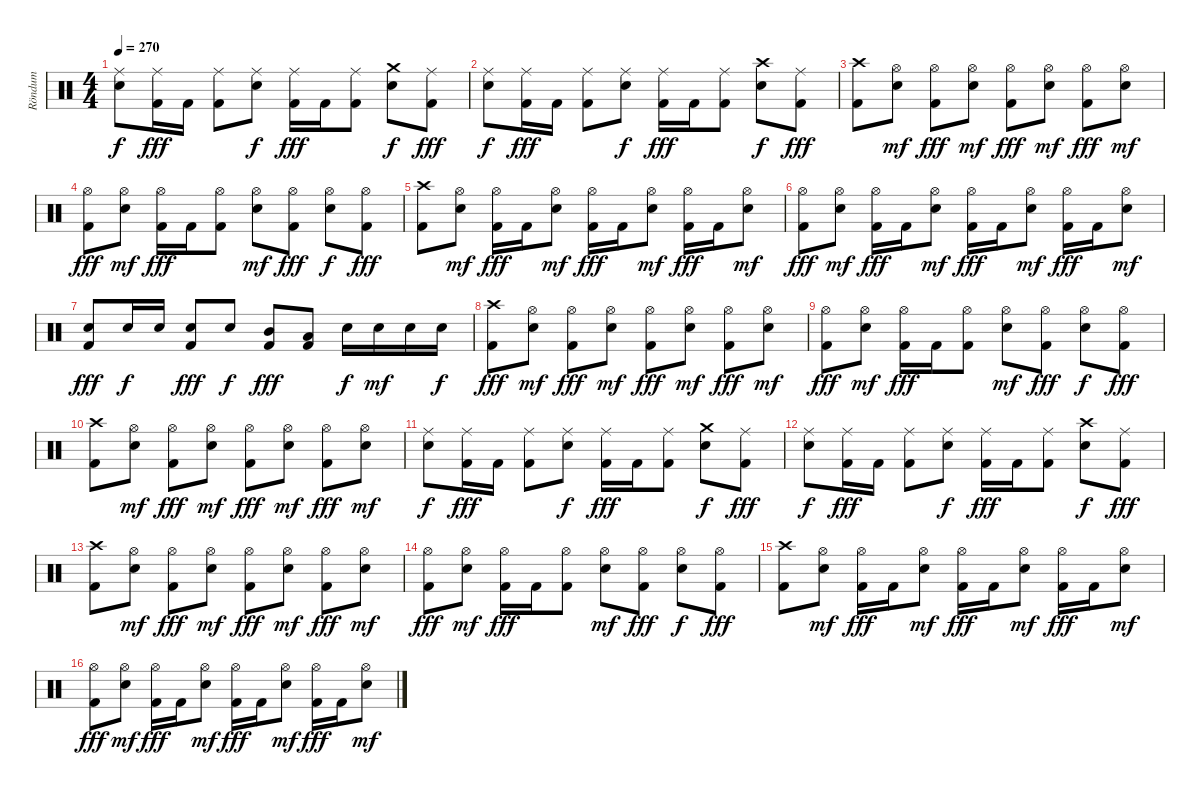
\track ("Röndum" "Röndum") {instrument percussion}
\staff {score}
\articulation defaults
\ts (4 4)
\tempo 270
\clef neutral
\ks c
("Ride (middle)" "Snare (hit) 2").8{dy f} ("Ride (middle)" "Kick (hit) 2").16{dy fff} "Kick (hit) 2".16 ("Ride (middle)" "Kick (hit) 2").8 ("Ride (middle)" "Snare (hit) 2").8{dy f} ("Ride (middle)" "Kick (hit) 2").16{dy fff} "Kick (hit) 2".16 ("Ride (middle)" "Kick (hit) 2").8 ("Crash medium (hit)" "Snare (hit) 2").8{dy f} ("Ride (middle)" "Kick (hit) 2").8{dy fff} |
("Ride (middle)" "Snare (hit) 2").8{dy f} ("Ride (middle)" "Kick (hit) 2").16{dy fff} "Kick (hit) 2".16 ("Ride (middle)" "Kick (hit) 2").8 ("Ride (middle)" "Snare (hit) 2").8{dy f} ("Ride (middle)" "Kick (hit) 2").16{dy fff} "Kick (hit) 2".16 ("Ride (middle)" "Kick (hit) 2").8 ("Crash high (hit)" "Snare (hit) 2").8{dy f} ("Ride (middle)" "Kick (hit) 2").8{dy fff} |
("Crash high (hit)" "Kick (hit) 2").8 ("Hi-Hat (open)" "Snare (hit) 2").8{dy mf} ("Hi-Hat (open)" "Kick (hit) 2").8{dy fff} ("Hi-Hat (open)" "Snare (hit) 2").8{dy mf} ("Hi-Hat (open)" "Kick (hit) 2").8{dy fff} ("Hi-Hat (open)" "Snare (hit) 2").8{dy mf} ("Hi-Hat (open)" "Kick (hit) 2").8{dy fff} ("Hi-Hat (open)" "Snare (hit) 2").8{dy mf} |
("Hi-Hat (open)" "Kick (hit) 2").8{dy fff} ("Hi-Hat (open)" "Snare (hit) 2").8{dy mf} ("Hi-Hat (open)" "Kick (hit) 2").16{dy fff} "Kick (hit) 2".16 ("Hi-Hat (open)" "Kick (hit) 2").8 ("Hi-Hat (open)" "Snare (hit) 2").8{dy mf} ("Hi-Hat (open)" "Kick (hit) 2").8{dy fff} ("Hi-Hat (open)" "Snare (hit) 2").8{dy f} ("Hi-Hat (open)" "Kick (hit) 2").8{dy fff} |
("Crash high (hit)" "Kick (hit) 2").8 ("Hi-Hat (open)" "Snare (hit) 2").8{dy mf} ("Hi-Hat (open)" "Kick (hit) 2").16{dy fff} "Kick (hit) 2".16 ("Hi-Hat (open)" "Snare (hit) 2").8{dy mf} ("Hi-Hat (open)" "Kick (hit) 2").16{dy fff} "Kick (hit) 2".16 ("Hi-Hat (open)" "Snare (hit) 2").8{dy mf} ("Hi-Hat (open)" "Kick (hit) 2").16{dy fff} "Kick (hit) 2".16 ("Hi-Hat (open)" "Snare (hit) 2").8{dy mf} |
("Hi-Hat (open)" "Kick (hit) 2").8{dy fff} ("Hi-Hat (open)" "Snare (hit) 2").8{dy mf} ("Hi-Hat (open)" "Kick (hit) 2").16{dy fff} "Kick (hit) 2".16 ("Hi-Hat (open)" "Snare (hit) 2").8{dy mf} ("Hi-Hat (open)" "Kick (hit) 2").16{dy fff} "Kick (hit) 2".16 ("Hi-Hat (open)" "Snare (hit) 2").8{dy mf} ("Hi-Hat (open)" "Kick (hit) 2").16{dy fff} "Kick (hit) 2".16 ("Hi-Hat (open)" "Snare (hit) 2").8{dy mf} |
("Snare (hit) 2" "Kick (hit) 2").8{dy fff} "Snare (hit) 2".16{dy f} "Snare (hit) 2".16 ("Snare (hit) 2" "Kick (hit) 2").8{dy fff} "Snare (hit) 2".8{dy f} ("Mid Tom (hit)" "Kick (hit) 2").8{dy fff} ("Low Tom (hit)" "Kick (hit) 2").8 "Snare (hit) 2".16{dy f} "Snare (hit) 2".16{dy mf} "Snare (hit) 2".16 "Snare (hit) 2".16{dy f} |
("Crash high (hit)" "Kick (hit) 2").8{dy fff} ("Hi-Hat (open)" "Snare (hit) 2").8{dy mf} ("Hi-Hat (open)" "Kick (hit) 2").8{dy fff} ("Hi-Hat (open)" "Snare (hit) 2").8{dy mf} ("Hi-Hat (open)" "Kick (hit) 2").8{dy fff} ("Hi-Hat (open)" "Snare (hit) 2").8{dy mf} ("Hi-Hat (open)" "Kick (hit) 2").8{dy fff} ("Hi-Hat (open)" "Snare (hit) 2").8{dy mf} |
("Hi-Hat (open)" "Kick (hit) 2").8{dy fff} ("Hi-Hat (open)" "Snare (hit) 2").8{dy mf} ("Hi-Hat (open)" "Kick (hit) 2").16{dy fff} "Kick (hit) 2".16 ("Hi-Hat (open)" "Kick (hit) 2").8 ("Hi-Hat (open)" "Snare (hit) 2").8{dy mf} ("Hi-Hat (open)" "Kick (hit) 2").8{dy fff} ("Hi-Hat (open)" "Snare (hit) 2").8{dy f} ("Hi-Hat (open)" "Kick (hit) 2").8{dy fff} |
("Crash high (hit)" "Kick (hit) 2").8 ("Hi-Hat (open)" "Snare (hit) 2").8{dy mf} ("Hi-Hat (open)" "Kick (hit) 2").8{dy fff} ("Hi-Hat (open)" "Snare (hit) 2").8{dy mf} ("Hi-Hat (open)" "Kick (hit) 2").8{dy fff} ("Hi-Hat (open)" "Snare (hit) 2").8{dy mf} ("Hi-Hat (open)" "Kick (hit) 2").8{dy fff} ("Hi-Hat (open)" "Snare (hit) 2").8{dy mf} |
("Ride (middle)" "Snare (hit) 2").8{dy f} ("Ride (middle)" "Kick (hit) 2").16{dy fff} "Kick (hit) 2".16 ("Ride (middle)" "Kick (hit) 2").8 ("Ride (middle)" "Snare (hit) 2").8{dy f} ("Ride (middle)" "Kick (hit) 2").16{dy fff} "Kick (hit) 2".16 ("Ride (middle)" "Kick (hit) 2").8 ("Crash medium (hit)" "Snare (hit) 2").8{dy f} ("Ride (middle)" "Kick (hit) 2").8{dy fff} |
("Ride (middle)" "Snare (hit) 2").8{dy f} ("Ride (middle)" "Kick (hit) 2").16{dy fff} "Kick (hit) 2".16 ("Ride (middle)" "Kick (hit) 2").8 ("Ride (middle)" "Snare (hit) 2").8{dy f} ("Ride (middle)" "Kick (hit) 2").16{dy fff} "Kick (hit) 2".16 ("Ride (middle)" "Kick (hit) 2").8 ("Crash high (hit)" "Snare (hit) 2").8{dy f} ("Ride (middle)" "Kick (hit) 2").8{dy fff} |
("Crash high (hit)" "Kick (hit) 2").8 ("Hi-Hat (open)" "Snare (hit) 2").8{dy mf} ("Hi-Hat (open)" "Kick (hit) 2").8{dy fff} ("Hi-Hat (open)" "Snare (hit) 2").8{dy mf} ("Hi-Hat (open)" "Kick (hit) 2").8{dy fff} ("Hi-Hat (open)" "Snare (hit) 2").8{dy mf} ("Hi-Hat (open)" "Kick (hit) 2").8{dy fff} ("Hi-Hat (open)" "Snare (hit) 2").8{dy mf} |
("Hi-Hat (open)" "Kick (hit) 2").8{dy fff} ("Hi-Hat (open)" "Snare (hit) 2").8{dy mf} ("Hi-Hat (open)" "Kick (hit) 2").16{dy fff} "Kick (hit) 2".16 ("Hi-Hat (open)" "Kick (hit) 2").8 ("Hi-Hat (open)" "Snare (hit) 2").8{dy mf} ("Hi-Hat (open)" "Kick (hit) 2").8{dy fff} ("Hi-Hat (open)" "Snare (hit) 2").8{dy f} ("Hi-Hat (open)" "Kick (hit) 2").8{dy fff} |
("Crash high (hit)" "Kick (hit) 2").8 ("Hi-Hat (open)" "Snare (hit) 2").8{dy mf} ("Hi-Hat (open)" "Kick (hit) 2").16{dy fff} "Kick (hit) 2".16 ("Hi-Hat (open)" "Snare (hit) 2").8{dy mf} ("Hi-Hat (open)" "Kick (hit) 2").16{dy fff} "Kick (hit) 2".16 ("Hi-Hat (open)" "Snare (hit) 2").8{dy mf} ("Hi-Hat (open)" "Kick (hit) 2").16{dy fff} "Kick (hit) 2".16 ("Hi-Hat (open)" "Snare (hit) 2").8{dy mf} |
("Hi-Hat (open)" "Kick (hit) 2").8{dy fff} ("Hi-Hat (open)" "Snare (hit) 2").8{dy mf} ("Hi-Hat (open)" "Kick (hit) 2").16{dy fff} "Kick (hit) 2".16 ("Hi-Hat (open)" "Snare (hit) 2").8{dy mf} ("Hi-Hat (open)" "Kick (hit) 2").16{dy fff} "Kick (hit) 2".16 ("Hi-Hat (open)" "Snare (hit) 2").8{dy mf} ("Hi-Hat (open)" "Kick (hit) 2").16{dy fff} "Kick (hit) 2".16 ("Hi-Hat (open)" "Snare (hit) 2").8{dy mf}
